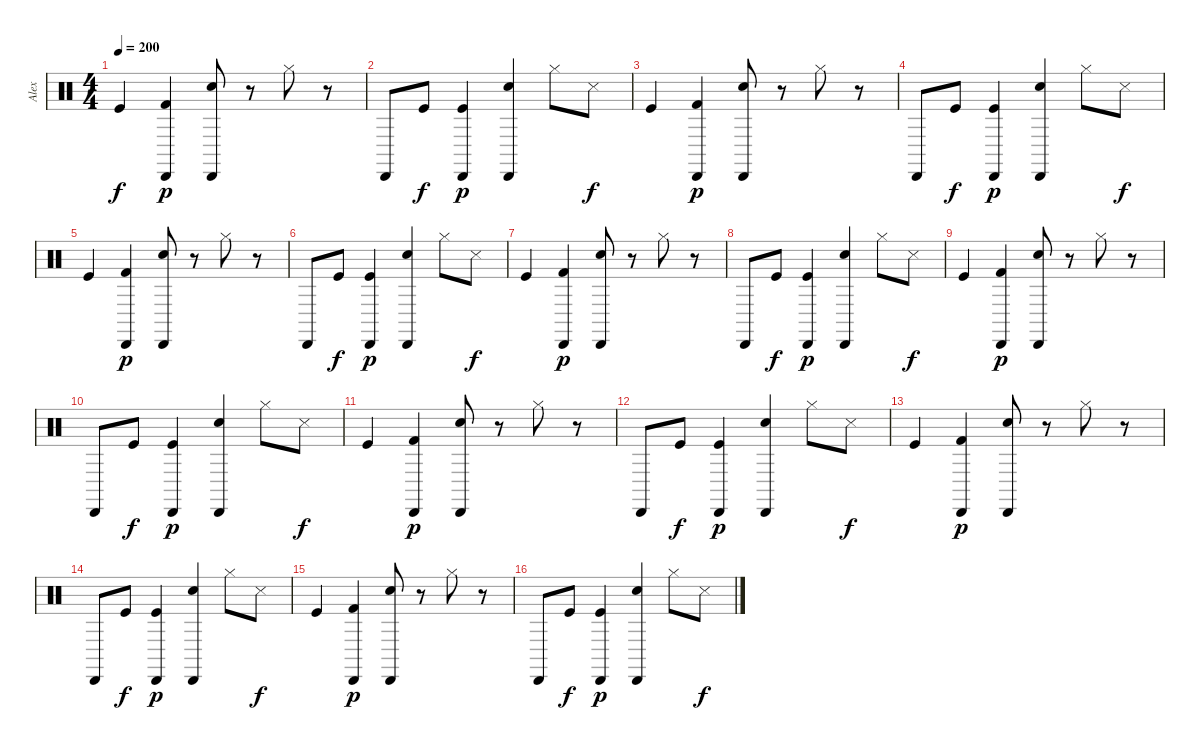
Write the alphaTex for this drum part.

\track ("Alex" "Alex") {instrument percussion}
\staff {score}
\articulation defaults
\ts (4 4)
\tempo 200
\clef neutral
\ks c "Kick (hit)".4{dy f}
("Kick (hit) 2" "Cabasa (hit)").4{dy p} ("Electric Snare (hit)" "Cabasa (hit)").8 r.8 "Hi-Hat (closed)".8 r.8 |
"Cabasa (hit)".8 "Kick (hit)".8{dy f} ("Kick (hit)" "Cabasa (hit)").4{dy p} ("Electric Snare (hit)" "Cabasa (hit)").4 "Hi-Hat (closed)".8 "Metronome (hit)".8{dy f} |
"Kick (hit)".4 ("Kick (hit) 2" "Cabasa (hit)").4{dy p} ("Electric Snare (hit)" "Cabasa (hit)").8 r.8 "Hi-Hat (closed)".8 r.8 |
"Cabasa (hit)".8 "Kick (hit)".8{dy f} ("Kick (hit)" "Cabasa (hit)").4{dy p} ("Electric Snare (hit)" "Cabasa (hit)").4 "Hi-Hat (closed)".8 "Metronome (hit)".8{dy f} |
"Kick (hit)".4 ("Kick (hit) 2" "Cabasa (hit)").4{dy p} ("Electric Snare (hit)" "Cabasa (hit)").8 r.8 "Hi-Hat (closed)".8 r.8 |
"Cabasa (hit)".8 "Kick (hit)".8{dy f} ("Kick (hit)" "Cabasa (hit)").4{dy p} ("Electric Snare (hit)" "Cabasa (hit)").4 "Hi-Hat (closed)".8 "Metronome (hit)".8{dy f} |
"Kick (hit)".4 ("Kick (hit) 2" "Cabasa (hit)").4{dy p} ("Electric Snare (hit)" "Cabasa (hit)").8 r.8 "Hi-Hat (closed)".8 r.8 |
"Cabasa (hit)".8 "Kick (hit)".8{dy f} ("Kick (hit)" "Cabasa (hit)").4{dy p} ("Electric Snare (hit)" "Cabasa (hit)").4 "Hi-Hat (closed)".8 "Metronome (hit)".8{dy f} |
"Kick (hit)".4 ("Kick (hit) 2" "Cabasa (hit)").4{dy p} ("Electric Snare (hit)" "Cabasa (hit)").8 r.8 "Hi-Hat (closed)".8 r.8 |
"Cabasa (hit)".8 "Kick (hit)".8{dy f} ("Kick (hit)" "Cabasa (hit)").4{dy p} ("Electric Snare (hit)" "Cabasa (hit)").4 "Hi-Hat (closed)".8 "Metronome (hit)".8{dy f} |
"Kick (hit)".4 ("Kick (hit) 2" "Cabasa (hit)").4{dy p} ("Electric Snare (hit)" "Cabasa (hit)").8 r.8 "Hi-Hat (closed)".8 r.8 |
"Cabasa (hit)".8 "Kick (hit)".8{dy f} ("Kick (hit)" "Cabasa (hit)").4{dy p} ("Electric Snare (hit)" "Cabasa (hit)").4 "Hi-Hat (closed)".8 "Metronome (hit)".8{dy f} |
"Kick (hit)".4 ("Kick (hit) 2" "Cabasa (hit)").4{dy p} ("Electric Snare (hit)" "Cabasa (hit)").8 r.8 "Hi-Hat (closed)".8 r.8 |
"Cabasa (hit)".8 "Kick (hit)".8{dy f} ("Kick (hit)" "Cabasa (hit)").4{dy p} ("Electric Snare (hit)" "Cabasa (hit)").4 "Hi-Hat (closed)".8 "Metronome (hit)".8{dy f} |
"Kick (hit)".4 ("Kick (hit) 2" "Cabasa (hit)").4{dy p} ("Electric Snare (hit)" "Cabasa (hit)").8 r.8 "Hi-Hat (closed)".8 r.8 |
"Cabasa (hit)".8 "Kick (hit)".8{dy f} ("Kick (hit)" "Cabasa (hit)").4{dy p} ("Electric Snare (hit)" "Cabasa (hit)").4 "Hi-Hat (closed)".8 "Metronome (hit)".8{dy f}
